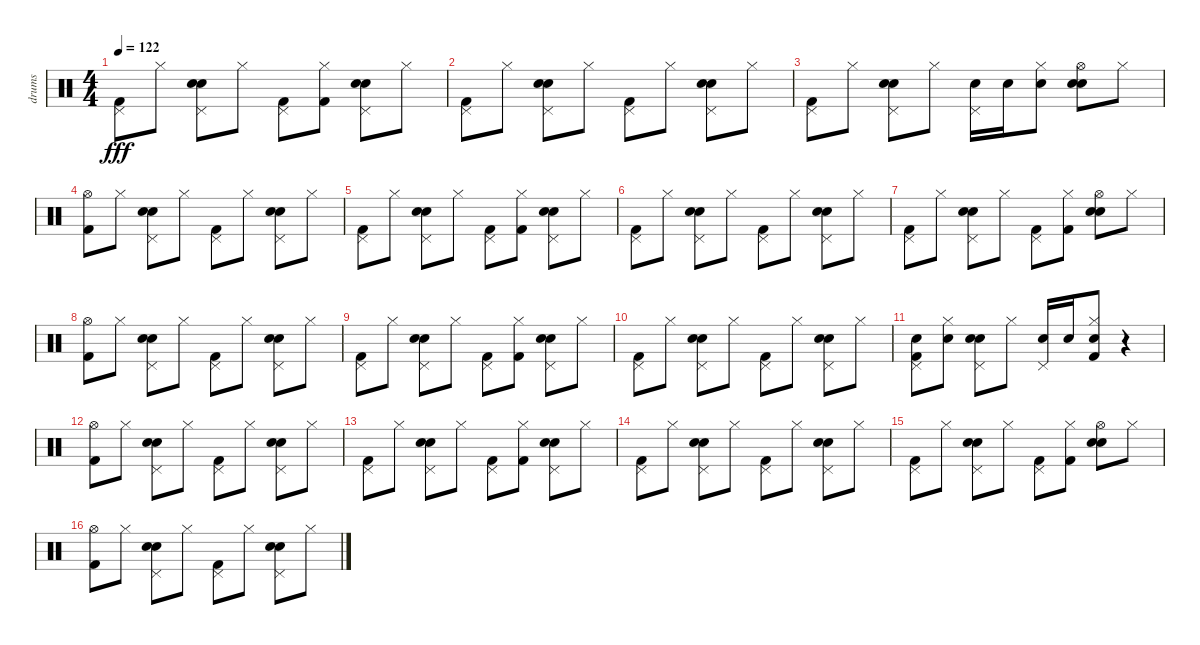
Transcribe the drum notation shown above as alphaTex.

\track ("drums" "drums") {instrument percussion}
\staff {score}
\articulation defaults
\ts (4 4)
\tempo 122
\clef neutral
\ks c
("Pedal Hi-Hat (hit)" "Kick (hit) 2").8{dy fff} "Hi-Hat (closed)".8 ("Hand Clap (hit)" "Pedal Hi-Hat (hit)" "Snare (hit) 2").8 "Hi-Hat (closed)".8 ("Pedal Hi-Hat (hit)" "Kick (hit) 2").8 ("Hi-Hat (closed)" "Kick (hit) 2").8 ("Hand Clap (hit)" "Pedal Hi-Hat (hit)" "Snare (hit) 2").8 "Hi-Hat (closed)".8 |
("Pedal Hi-Hat (hit)" "Kick (hit) 2").8 "Hi-Hat (closed)".8 ("Hand Clap (hit)" "Pedal Hi-Hat (hit)" "Snare (hit) 2").8 "Hi-Hat (closed)".8 ("Pedal Hi-Hat (hit)" "Kick (hit) 2").8 "Hi-Hat (closed)".8 ("Hand Clap (hit)" "Pedal Hi-Hat (hit)" "Snare (hit) 2").8 "Hi-Hat (closed)".8 |
("Pedal Hi-Hat (hit)" "Kick (hit) 2").8 "Hi-Hat (closed)".8 ("Hand Clap (hit)" "Pedal Hi-Hat (hit)" "Snare (hit) 2").8 "Hi-Hat (closed)".8 ("Snare (hit) 2" "Pedal Hi-Hat (hit)").16 "Snare (hit) 2".16 ("Snare (hit) 2" "Hi-Hat (closed)").8 ("Hand Clap (hit)" "Snare (hit) 2" "Hi-Hat (open)").8 "Hi-Hat (closed)".8 |
("Hi-Hat (open)" "Kick (hit) 2").8 "Hi-Hat (closed)".8 ("Hand Clap (hit)" "Pedal Hi-Hat (hit)" "Snare (hit) 2").8 "Hi-Hat (closed)".8 ("Pedal Hi-Hat (hit)" "Kick (hit) 2").8 "Hi-Hat (closed)".8 ("Hand Clap (hit)" "Pedal Hi-Hat (hit)" "Snare (hit) 2").8 "Hi-Hat (closed)".8 |
("Pedal Hi-Hat (hit)" "Kick (hit) 2").8 "Hi-Hat (closed)".8 ("Hand Clap (hit)" "Pedal Hi-Hat (hit)" "Snare (hit) 2").8 "Hi-Hat (closed)".8 ("Pedal Hi-Hat (hit)" "Kick (hit) 2").8 ("Hi-Hat (closed)" "Kick (hit) 2").8 ("Hand Clap (hit)" "Pedal Hi-Hat (hit)" "Snare (hit) 2").8 "Hi-Hat (closed)".8 |
("Pedal Hi-Hat (hit)" "Kick (hit) 2").8 "Hi-Hat (closed)".8 ("Hand Clap (hit)" "Pedal Hi-Hat (hit)" "Snare (hit) 2").8 "Hi-Hat (closed)".8 ("Pedal Hi-Hat (hit)" "Kick (hit) 2").8 "Hi-Hat (closed)".8 ("Hand Clap (hit)" "Pedal Hi-Hat (hit)" "Snare (hit) 2").8 "Hi-Hat (closed)".8 |
("Pedal Hi-Hat (hit)" "Kick (hit) 2").8 "Hi-Hat (closed)".8 ("Hand Clap (hit)" "Pedal Hi-Hat (hit)" "Snare (hit) 2").8 "Hi-Hat (closed)".8 ("Kick (hit) 2" "Pedal Hi-Hat (hit)").8 ("Kick (hit) 2" "Hi-Hat (closed)").8 ("Hand Clap (hit)" "Hi-Hat (open)" "Snare (hit) 2").8 "Hi-Hat (closed)".8 |
("Hi-Hat (open)" "Kick (hit) 2").8 "Hi-Hat (closed)".8 ("Hand Clap (hit)" "Pedal Hi-Hat (hit)" "Snare (hit) 2").8 "Hi-Hat (closed)".8 ("Pedal Hi-Hat (hit)" "Kick (hit) 2").8 "Hi-Hat (closed)".8 ("Hand Clap (hit)" "Pedal Hi-Hat (hit)" "Snare (hit) 2").8 "Hi-Hat (closed)".8 |
("Pedal Hi-Hat (hit)" "Kick (hit) 2").8 "Hi-Hat (closed)".8 ("Hand Clap (hit)" "Pedal Hi-Hat (hit)" "Snare (hit) 2").8 "Hi-Hat (closed)".8 ("Pedal Hi-Hat (hit)" "Kick (hit) 2").8 ("Hi-Hat (closed)" "Kick (hit) 2").8 ("Hand Clap (hit)" "Pedal Hi-Hat (hit)" "Snare (hit) 2").8 "Hi-Hat (closed)".8 |
("Pedal Hi-Hat (hit)" "Kick (hit) 2").8 "Hi-Hat (closed)".8 ("Hand Clap (hit)" "Pedal Hi-Hat (hit)" "Snare (hit) 2").8 "Hi-Hat (closed)".8 ("Pedal Hi-Hat (hit)" "Kick (hit) 2").8 "Hi-Hat (closed)".8 ("Hand Clap (hit)" "Pedal Hi-Hat (hit)" "Snare (hit) 2").8 "Hi-Hat (closed)".8 |
("Snare (hit) 2" "Kick (hit) 2" "Pedal Hi-Hat (hit)").8 ("Snare (hit) 2" "Hi-Hat (closed)").8 ("Hand Clap (hit)" "Pedal Hi-Hat (hit)" "Snare (hit) 2").8 "Hi-Hat (closed)".8 ("Snare (hit) 2" "Pedal Hi-Hat (hit)").16 "Snare (hit) 2".16 ("Kick (hit) 2" "Snare (hit) 2" "Hi-Hat (closed)").8 r.4 |
("Hi-Hat (open)" "Kick (hit) 2").8 "Hi-Hat (closed)".8 ("Hand Clap (hit)" "Pedal Hi-Hat (hit)" "Snare (hit) 2").8 "Hi-Hat (closed)".8 ("Pedal Hi-Hat (hit)" "Kick (hit) 2").8 "Hi-Hat (closed)".8 ("Hand Clap (hit)" "Pedal Hi-Hat (hit)" "Snare (hit) 2").8 "Hi-Hat (closed)".8 |
("Pedal Hi-Hat (hit)" "Kick (hit) 2").8 "Hi-Hat (closed)".8 ("Hand Clap (hit)" "Pedal Hi-Hat (hit)" "Snare (hit) 2").8 "Hi-Hat (closed)".8 ("Pedal Hi-Hat (hit)" "Kick (hit) 2").8 ("Hi-Hat (closed)" "Kick (hit) 2").8 ("Hand Clap (hit)" "Pedal Hi-Hat (hit)" "Snare (hit) 2").8 "Hi-Hat (closed)".8 |
("Pedal Hi-Hat (hit)" "Kick (hit) 2").8 "Hi-Hat (closed)".8 ("Hand Clap (hit)" "Pedal Hi-Hat (hit)" "Snare (hit) 2").8 "Hi-Hat (closed)".8 ("Pedal Hi-Hat (hit)" "Kick (hit) 2").8 "Hi-Hat (closed)".8 ("Hand Clap (hit)" "Pedal Hi-Hat (hit)" "Snare (hit) 2").8 "Hi-Hat (closed)".8 |
("Pedal Hi-Hat (hit)" "Kick (hit) 2").8 "Hi-Hat (closed)".8 ("Hand Clap (hit)" "Pedal Hi-Hat (hit)" "Snare (hit) 2").8 "Hi-Hat (closed)".8 ("Kick (hit) 2" "Pedal Hi-Hat (hit)").8 ("Kick (hit) 2" "Hi-Hat (closed)").8 ("Hand Clap (hit)" "Hi-Hat (open)" "Snare (hit) 2").8 "Hi-Hat (closed)".8 |
("Hi-Hat (open)" "Kick (hit) 2").8 "Hi-Hat (closed)".8 ("Hand Clap (hit)" "Pedal Hi-Hat (hit)" "Snare (hit) 2").8 "Hi-Hat (closed)".8 ("Pedal Hi-Hat (hit)" "Kick (hit) 2").8 "Hi-Hat (closed)".8 ("Hand Clap (hit)" "Pedal Hi-Hat (hit)" "Snare (hit) 2").8 "Hi-Hat (closed)".8
